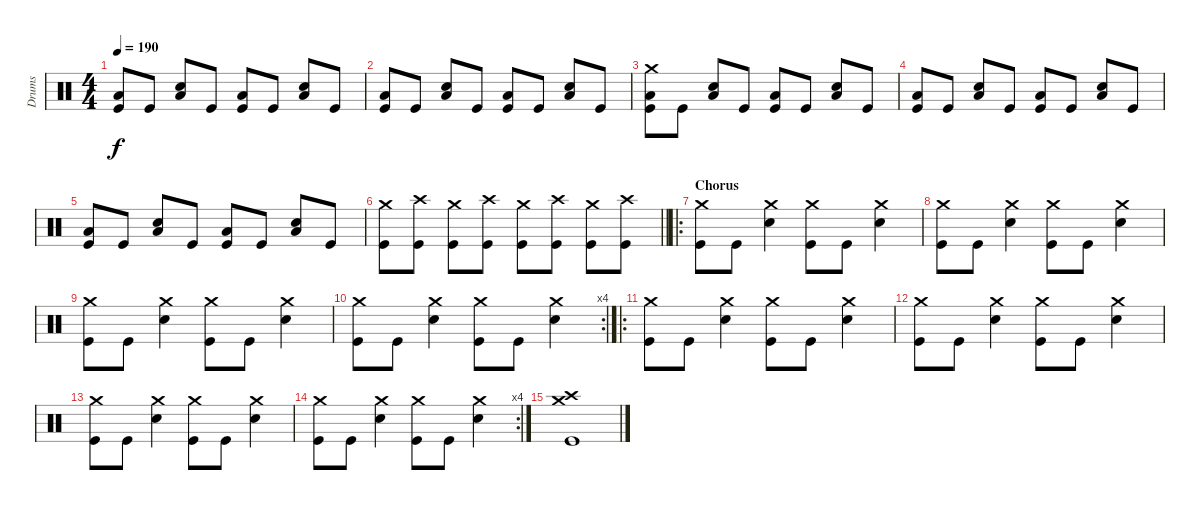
\track ("Drums" "Drums") {instrument percussion}
\staff {score}
\articulation defaults
\ts (4 4)
\tempo 190
\clef neutral
\ks c
("Low Floor Tom (hit)" "Kick (hit)").8{dy f} "Kick (hit)".8 ("Snare (hit) 2" "Low Floor Tom (hit)").8 "Kick (hit)".8 ("Low Floor Tom (hit)" "Kick (hit)").8 "Kick (hit)".8 ("Snare (hit) 2" "Low Floor Tom (hit)").8 "Kick (hit)".8 |
("Low Floor Tom (hit)" "Kick (hit)").8 "Kick (hit)".8 ("Snare (hit) 2" "Low Floor Tom (hit)").8 "Kick (hit)".8 ("Low Floor Tom (hit)" "Kick (hit)").8 "Kick (hit)".8 ("Snare (hit) 2" "Low Floor Tom (hit)").8 "Kick (hit)".8 |
("Crash medium (hit)" "Low Floor Tom (hit)" "Kick (hit)").8 "Kick (hit)".8 ("Snare (hit) 2" "Low Floor Tom (hit)").8 "Kick (hit)".8 ("Low Floor Tom (hit)" "Kick (hit)").8 "Kick (hit)".8 ("Snare (hit) 2" "Low Floor Tom (hit)").8 "Kick (hit)".8 |
("Low Floor Tom (hit)" "Kick (hit)").8 "Kick (hit)".8 ("Snare (hit) 2" "Low Floor Tom (hit)").8 "Kick (hit)".8 ("Low Floor Tom (hit)" "Kick (hit)").8 "Kick (hit)".8 ("Snare (hit) 2" "Low Floor Tom (hit)").8 "Kick (hit)".8 |
("Low Floor Tom (hit)" "Kick (hit)").8 "Kick (hit)".8 ("Snare (hit) 2" "Low Floor Tom (hit)").8 "Kick (hit)".8 ("Low Floor Tom (hit)" "Kick (hit)").8 "Kick (hit)".8 ("Snare (hit) 2" "Low Floor Tom (hit)").8 "Kick (hit)".8 |
\barLineRight lightlight
("Crash medium (hit)" "Kick (hit)").8 ("Crash high (hit)" "Kick (hit)").8 ("Crash medium (hit)" "Kick (hit)").8 ("Crash high (hit)" "Kick (hit)").8 ("Crash medium (hit)" "Kick (hit)").8 ("Crash high (hit)" "Kick (hit)").8 ("Crash medium (hit)" "Kick (hit)").8 ("Crash high (hit)" "Kick (hit)").8 |
\ro
\section ("" "Chorus")
("Crash medium (hit)" "Kick (hit)").8 "Kick (hit)".8 ("Crash medium (hit)" "Snare (hit) 2").4 ("Crash medium (hit)" "Kick (hit)").8 "Kick (hit)".8 ("Crash medium (hit)" "Snare (hit) 2").4 |
("Crash medium (hit)" "Kick (hit)").8 "Kick (hit)".8 ("Crash medium (hit)" "Snare (hit) 2").4 ("Crash medium (hit)" "Kick (hit)").8 "Kick (hit)".8 ("Crash medium (hit)" "Snare (hit) 2").4 |
("Crash medium (hit)" "Kick (hit)").8 "Kick (hit)".8 ("Crash medium (hit)" "Snare (hit) 2").4 ("Crash medium (hit)" "Kick (hit)").8 "Kick (hit)".8 ("Crash medium (hit)" "Snare (hit) 2").4 |
\rc 4
("Crash medium (hit)" "Kick (hit)").8 "Kick (hit)".8 ("Crash medium (hit)" "Snare (hit) 2").4 ("Crash medium (hit)" "Kick (hit)").8 "Kick (hit)".8 ("Crash medium (hit)" "Snare (hit) 2").4 |
\ro
("Crash medium (hit)" "Kick (hit)").8 "Kick (hit)".8 ("Crash medium (hit)" "Snare (hit) 2").4 ("Crash medium (hit)" "Kick (hit)").8 "Kick (hit)".8 ("Crash medium (hit)" "Snare (hit) 2").4 |
("Crash medium (hit)" "Kick (hit)").8 "Kick (hit)".8 ("Crash medium (hit)" "Snare (hit) 2").4 ("Crash medium (hit)" "Kick (hit)").8 "Kick (hit)".8 ("Crash medium (hit)" "Snare (hit) 2").4 |
("Crash medium (hit)" "Kick (hit)").8 "Kick (hit)".8 ("Crash medium (hit)" "Snare (hit) 2").4 ("Crash medium (hit)" "Kick (hit)").8 "Kick (hit)".8 ("Crash medium (hit)" "Snare (hit) 2").4 |
\rc 4
("Crash medium (hit)" "Kick (hit)").8 "Kick (hit)".8 ("Crash medium (hit)" "Snare (hit) 2").4 ("Crash medium (hit)" "Kick (hit)").8 "Kick (hit)".8 ("Crash medium (hit)" "Snare (hit) 2").4 |
("Crash high (hit)" "Crash medium (hit)" "Kick (hit)").1
